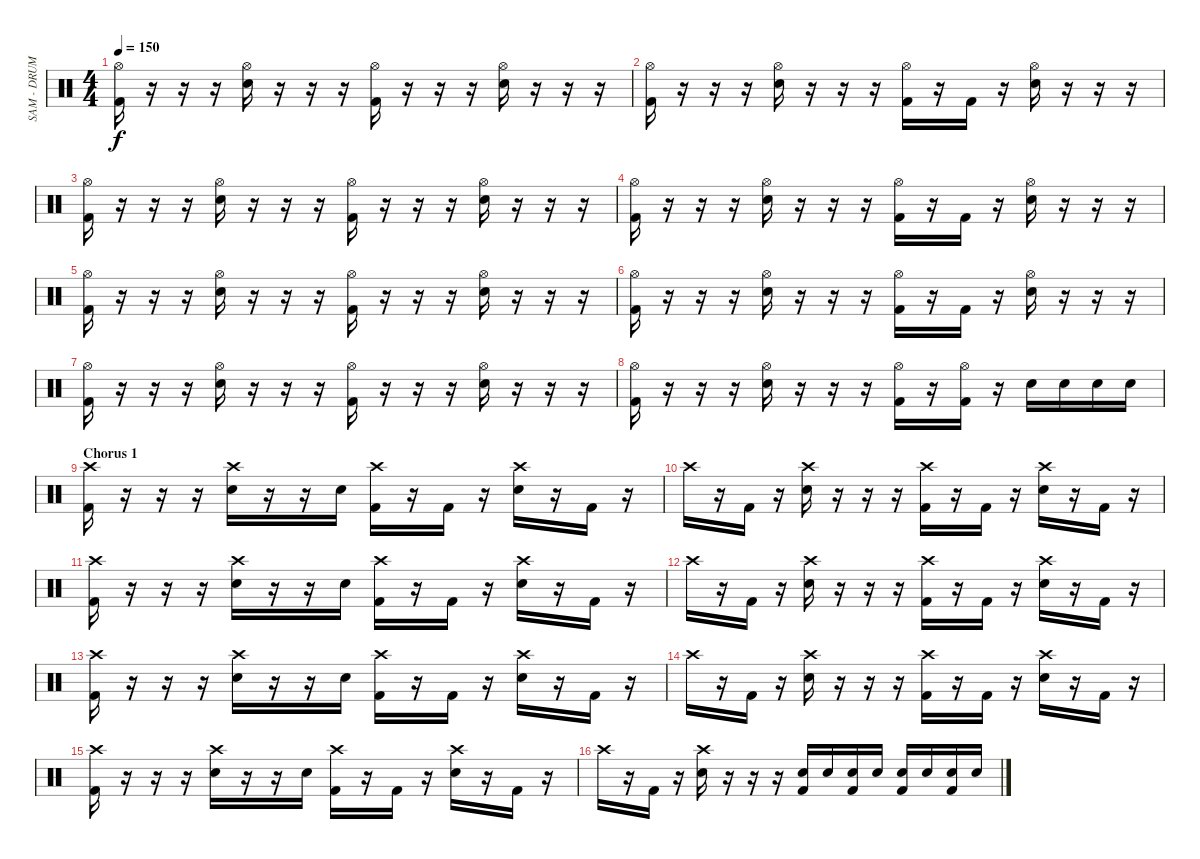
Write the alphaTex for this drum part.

\track ("SAM - DRUMS" "SAM - DRUM") {instrument percussion}
\staff {score}
\articulation defaults
\ts (4 4)
\tempo 150
\clef neutral
\ks c
("Hi-Hat (open)" "Kick (hit) 2").16{dy f} r.16 r.16 r.16 ("Hi-Hat (open)" "Snare (hit) 2").16 r.16 r.16 r.16 ("Hi-Hat (open)" "Kick (hit) 2").16 r.16 r.16 r.16 ("Hi-Hat (open)" "Snare (hit) 2").16 r.16 r.16 r.16 |
("Hi-Hat (open)" "Kick (hit) 2").16 r.16 r.16 r.16 ("Hi-Hat (open)" "Snare (hit) 2").16 r.16 r.16 r.16 ("Hi-Hat (open)" "Kick (hit) 2").16 r.16 "Kick (hit) 2".16 r.16 ("Hi-Hat (open)" "Snare (hit) 2").16 r.16 r.16 r.16 |
("Hi-Hat (open)" "Kick (hit) 2").16 r.16 r.16 r.16 ("Hi-Hat (open)" "Snare (hit) 2").16 r.16 r.16 r.16 ("Hi-Hat (open)" "Kick (hit) 2").16 r.16 r.16 r.16 ("Hi-Hat (open)" "Snare (hit) 2").16 r.16 r.16 r.16 |
("Hi-Hat (open)" "Kick (hit) 2").16 r.16 r.16 r.16 ("Hi-Hat (open)" "Snare (hit) 2").16 r.16 r.16 r.16 ("Hi-Hat (open)" "Kick (hit) 2").16 r.16 "Kick (hit) 2".16 r.16 ("Hi-Hat (open)" "Snare (hit) 2").16 r.16 r.16 r.16 |
("Hi-Hat (open)" "Kick (hit) 2").16 r.16 r.16 r.16 ("Hi-Hat (open)" "Snare (hit) 2").16 r.16 r.16 r.16 ("Hi-Hat (open)" "Kick (hit) 2").16 r.16 r.16 r.16 ("Hi-Hat (open)" "Snare (hit) 2").16 r.16 r.16 r.16 |
("Hi-Hat (open)" "Kick (hit) 2").16 r.16 r.16 r.16 ("Hi-Hat (open)" "Snare (hit) 2").16 r.16 r.16 r.16 ("Hi-Hat (open)" "Kick (hit) 2").16 r.16 "Kick (hit) 2".16 r.16 ("Hi-Hat (open)" "Snare (hit) 2").16 r.16 r.16 r.16 |
("Hi-Hat (open)" "Kick (hit) 2").16 r.16 r.16 r.16 ("Hi-Hat (open)" "Snare (hit) 2").16 r.16 r.16 r.16 ("Hi-Hat (open)" "Kick (hit) 2").16 r.16 r.16 r.16 ("Hi-Hat (open)" "Snare (hit) 2").16 r.16 r.16 r.16 |
("Hi-Hat (open)" "Kick (hit) 2").16 r.16 r.16 r.16 ("Hi-Hat (open)" "Snare (hit) 2").16 r.16 r.16 r.16 ("Hi-Hat (open)" "Kick (hit) 2").16 r.16 ("Hi-Hat (open)" "Kick (hit) 2").16 r.16 "Snare (hit) 2".16 "Snare (hit) 2".16 "Snare (hit) 2".16 "Snare (hit) 2".16 |
\section ("" "Chorus 1")
("Crash high (hit)" "Kick (hit) 2").16 r.16 r.16 r.16 ("Crash high (hit)" "Snare (hit) 2").16 r.16 r.16 "Snare (hit) 2".16 ("Crash high (hit)" "Kick (hit) 2").16 r.16 "Kick (hit) 2".16 r.16 ("Crash high (hit)" "Snare (hit) 2").16 r.16 "Kick (hit) 2".16 r.16 |
"Crash high (hit)".16 r.16 "Kick (hit) 2".16 r.16 ("Crash high (hit)" "Snare (hit) 2").16 r.16 r.16 r.16 ("Crash high (hit)" "Kick (hit) 2").16 r.16 "Kick (hit) 2".16 r.16 ("Crash high (hit)" "Snare (hit) 2").16 r.16 "Kick (hit) 2".16 r.16 |
("Crash high (hit)" "Kick (hit) 2").16 r.16 r.16 r.16 ("Crash high (hit)" "Snare (hit) 2").16 r.16 r.16 "Snare (hit) 2".16 ("Crash high (hit)" "Kick (hit) 2").16 r.16 "Kick (hit) 2".16 r.16 ("Crash high (hit)" "Snare (hit) 2").16 r.16 "Kick (hit) 2".16 r.16 |
"Crash high (hit)".16 r.16 "Kick (hit) 2".16 r.16 ("Crash high (hit)" "Snare (hit) 2").16 r.16 r.16 r.16 ("Crash high (hit)" "Kick (hit) 2").16 r.16 "Kick (hit) 2".16 r.16 ("Crash high (hit)" "Snare (hit) 2").16 r.16 "Kick (hit) 2".16 r.16 |
("Crash high (hit)" "Kick (hit) 2").16 r.16 r.16 r.16 ("Crash high (hit)" "Snare (hit) 2").16 r.16 r.16 "Snare (hit) 2".16 ("Crash high (hit)" "Kick (hit) 2").16 r.16 "Kick (hit) 2".16 r.16 ("Crash high (hit)" "Snare (hit) 2").16 r.16 "Kick (hit) 2".16 r.16 |
"Crash high (hit)".16 r.16 "Kick (hit) 2".16 r.16 ("Crash high (hit)" "Snare (hit) 2").16 r.16 r.16 r.16 ("Crash high (hit)" "Kick (hit) 2").16 r.16 "Kick (hit) 2".16 r.16 ("Crash high (hit)" "Snare (hit) 2").16 r.16 "Kick (hit) 2".16 r.16 |
("Crash high (hit)" "Kick (hit) 2").16 r.16 r.16 r.16 ("Crash high (hit)" "Snare (hit) 2").16 r.16 r.16 "Snare (hit) 2".16 ("Crash high (hit)" "Kick (hit) 2").16 r.16 "Kick (hit) 2".16 r.16 ("Crash high (hit)" "Snare (hit) 2").16 r.16 "Kick (hit) 2".16 r.16 |
"Crash high (hit)".16 r.16 "Kick (hit) 2".16 r.16 ("Crash high (hit)" "Snare (hit) 2").16 r.16 r.16 r.16 ("Snare (hit) 2" "Kick (hit) 2").16 "Snare (hit) 2".16 ("Snare (hit) 2" "Kick (hit) 2").16 "Snare (hit) 2".16 ("Snare (hit) 2" "Kick (hit) 2").16 "Snare (hit) 2".16 ("Snare (hit) 2" "Kick (hit) 2").16 "Snare (hit) 2".16
